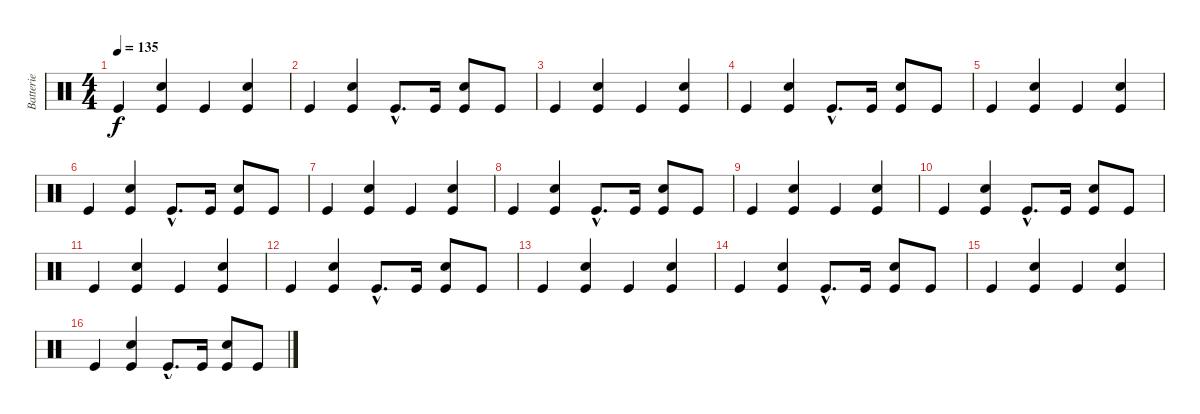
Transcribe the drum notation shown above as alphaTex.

\track ("Batterie" "Batterie") {instrument percussion}
\staff {score}
\articulation defaults
\ts (4 4)
\tempo 135
\clef neutral
\ks c "Kick (hit)".4{dy f}
("Electric Snare (hit)" "Kick (hit)").4 "Kick (hit)".4 ("Electric Snare (hit)" "Kick (hit)").4 |
"Kick (hit)".4 ("Electric Snare (hit)" "Kick (hit)").4 "Kick (hit)"{hac}.8{d} "Kick (hit)".16 ("Electric Snare (hit)" "Kick (hit)").8 "Kick (hit)".8 |
"Kick (hit)".4 ("Electric Snare (hit)" "Kick (hit)").4 "Kick (hit)".4 ("Electric Snare (hit)" "Kick (hit)").4 |
"Kick (hit)".4 ("Electric Snare (hit)" "Kick (hit)").4 "Kick (hit)"{hac}.8{d} "Kick (hit)".16 ("Electric Snare (hit)" "Kick (hit)").8 "Kick (hit)".8 |
"Kick (hit)".4 ("Electric Snare (hit)" "Kick (hit)").4 "Kick (hit)".4 ("Electric Snare (hit)" "Kick (hit)").4 |
"Kick (hit)".4 ("Electric Snare (hit)" "Kick (hit)").4 "Kick (hit)"{hac}.8{d} "Kick (hit)".16 ("Electric Snare (hit)" "Kick (hit)").8 "Kick (hit)".8 |
"Kick (hit)".4 ("Electric Snare (hit)" "Kick (hit)").4 "Kick (hit)".4 ("Electric Snare (hit)" "Kick (hit)").4 |
"Kick (hit)".4 ("Electric Snare (hit)" "Kick (hit)").4 "Kick (hit)"{hac}.8{d} "Kick (hit)".16 ("Electric Snare (hit)" "Kick (hit)").8 "Kick (hit)".8 |
"Kick (hit)".4 ("Electric Snare (hit)" "Kick (hit)").4 "Kick (hit)".4 ("Electric Snare (hit)" "Kick (hit)").4 |
"Kick (hit)".4 ("Electric Snare (hit)" "Kick (hit)").4 "Kick (hit)"{hac}.8{d} "Kick (hit)".16 ("Electric Snare (hit)" "Kick (hit)").8 "Kick (hit)".8 |
"Kick (hit)".4 ("Electric Snare (hit)" "Kick (hit)").4 "Kick (hit)".4 ("Electric Snare (hit)" "Kick (hit)").4 |
"Kick (hit)".4 ("Electric Snare (hit)" "Kick (hit)").4 "Kick (hit)"{hac}.8{d} "Kick (hit)".16 ("Electric Snare (hit)" "Kick (hit)").8 "Kick (hit)".8 |
"Kick (hit)".4 ("Electric Snare (hit)" "Kick (hit)").4 "Kick (hit)".4 ("Electric Snare (hit)" "Kick (hit)").4 |
"Kick (hit)".4 ("Electric Snare (hit)" "Kick (hit)").4 "Kick (hit)"{hac}.8{d} "Kick (hit)".16 ("Electric Snare (hit)" "Kick (hit)").8 "Kick (hit)".8 |
"Kick (hit)".4 ("Electric Snare (hit)" "Kick (hit)").4 "Kick (hit)".4 ("Electric Snare (hit)" "Kick (hit)").4 |
"Kick (hit)".4 ("Electric Snare (hit)" "Kick (hit)").4 "Kick (hit)"{hac}.8{d} "Kick (hit)".16 ("Electric Snare (hit)" "Kick (hit)").8 "Kick (hit)".8
